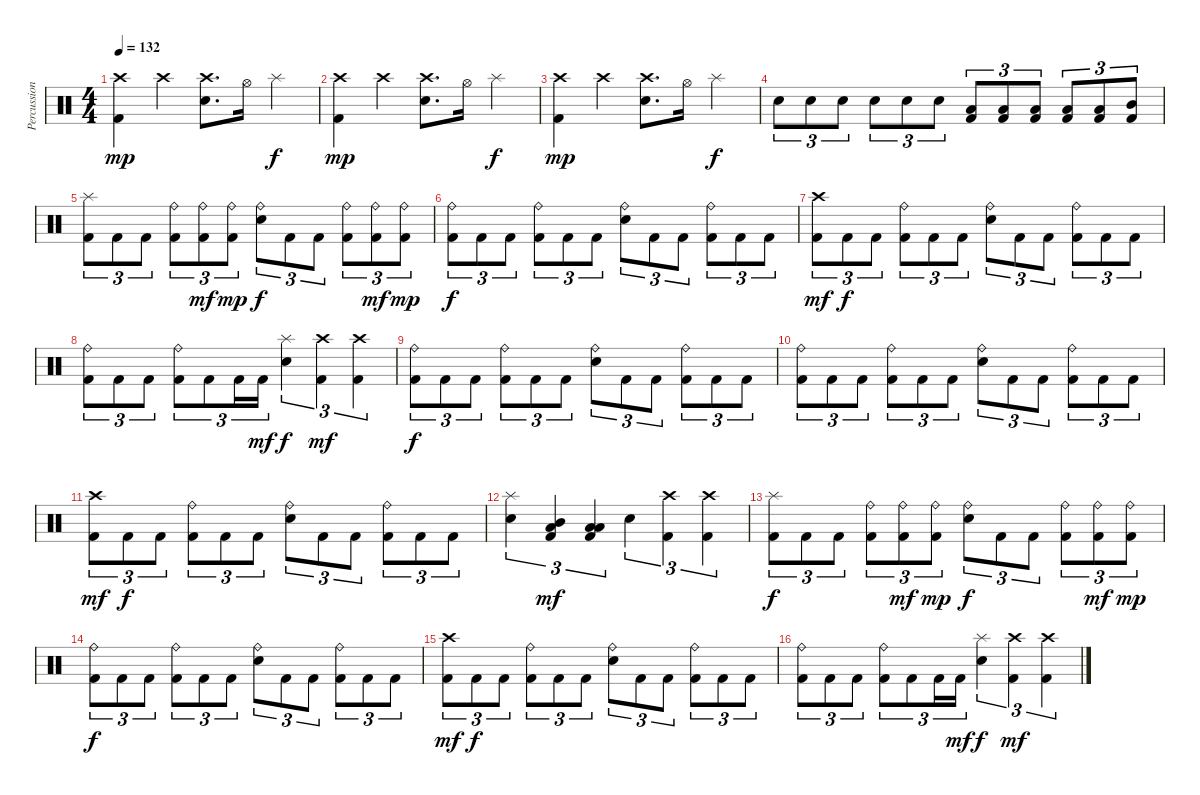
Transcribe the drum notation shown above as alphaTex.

\track ("Percussion" "Percussion") {instrument percussion}
\staff {score}
\articulation defaults
\ts (4 4)
\tempo 132
\clef neutral
\ks c
("Crash high (hit)" "Kick (hit) 2").4{dy mp} "Crash high (hit)".4 ("Crash high (hit)" "Snare (hit) 2").8{d} "Hi-Hat (open)".16 "Splash (hit)".4{dy f} |
("Crash high (hit)" "Kick (hit) 2").4{dy mp} "Crash high (hit)".4 ("Crash high (hit)" "Snare (hit) 2").8{d} "Hi-Hat (open)".16 "Splash (hit)".4{dy f} |
("Crash high (hit)" "Kick (hit) 2").4{dy mp} "Crash high (hit)".4 ("Crash high (hit)" "Snare (hit) 2").8{d} "Hi-Hat (open)".16 "Splash (hit)".4{dy f} |
"Snare (hit) 2".8{tu (3 2)} "Snare (hit) 2".8{tu (3 2)} "Snare (hit) 2".8{tu (3 2)} "Snare (hit) 2".8{tu (3 2)} "Snare (hit) 2".8{tu (3 2)} "Snare (hit) 2".8{tu (3 2)} ("Low Tom (hit)" "Kick (hit) 2").8{tu (3 2)} ("Low Tom (hit)" "Kick (hit) 2").8{tu (3 2)} ("Low Tom (hit)" "Kick (hit) 2").8{tu (3 2)} ("Low Tom (hit)" "Kick (hit) 2").8{tu (3 2)} ("Low Tom (hit)" "Kick (hit) 2").8{tu (3 2)} ("Mid Tom (hit)" "Kick (hit) 2").8{tu (3 2)} |
("Splash (hit)" "Kick (hit) 2").8{tu (3 2)} "Kick (hit) 2".8{tu (3 2)} "Kick (hit) 2".8{tu (3 2)} ("Ride (bell)" "Kick (hit) 2").8{tu (3 2)} ("Ride (bell)" "Kick (hit) 2").8{tu (3 2) dy mf} ("Ride (bell)" "Kick (hit) 2").8{tu (3 2) dy mp} ("Ride (bell)" "Snare (hit) 2").8{tu (3 2) dy f} "Kick (hit) 2".8{tu (3 2)} "Kick (hit) 2".8{tu (3 2)} ("Ride (bell)" "Kick (hit) 2").8{tu (3 2)} ("Ride (bell)" "Kick (hit) 2").8{tu (3 2) dy mf} ("Ride (bell)" "Kick (hit) 2").8{tu (3 2) dy mp} |
("Ride (bell)" "Kick (hit) 2").8{tu (3 2) dy f} "Kick (hit) 2".8{tu (3 2)} "Kick (hit) 2".8{tu (3 2)} ("Ride (bell)" "Kick (hit) 2").8{tu (3 2)} "Kick (hit) 2".8{tu (3 2)} "Kick (hit) 2".8{tu (3 2)} ("Ride (bell)" "Snare (hit) 2").8{tu (3 2)} "Kick (hit) 2".8{tu (3 2)} "Kick (hit) 2".8{tu (3 2)} ("Ride (bell)" "Kick (hit) 2").8{tu (3 2)} "Kick (hit) 2".8{tu (3 2)} "Kick (hit) 2".8{tu (3 2)} |
("Crash high (hit)" "Kick (hit) 2").8{tu (3 2) dy mf} "Kick (hit) 2".8{tu (3 2) dy f} "Kick (hit) 2".8{tu (3 2)} ("Ride (bell)" "Kick (hit) 2").8{tu (3 2)} "Kick (hit) 2".8{tu (3 2)} "Kick (hit) 2".8{tu (3 2)} ("Ride (bell)" "Snare (hit) 2").8{tu (3 2)} "Kick (hit) 2".8{tu (3 2)} "Kick (hit) 2".8{tu (3 2)} ("Ride (bell)" "Kick (hit) 2").8{tu (3 2)} "Kick (hit) 2".8{tu (3 2)} "Kick (hit) 2".8{tu (3 2)} |
("Ride (bell)" "Kick (hit) 2").8{tu (3 2)} "Kick (hit) 2".8{tu (3 2)} "Kick (hit) 2".8{tu (3 2)} ("Ride (bell)" "Kick (hit) 2").8{tu (3 2)} "Kick (hit) 2".8{tu (3 2)} "Kick (hit) 2".16{tu (3 2)} "Kick (hit) 2".16{tu (3 2) dy mf} ("Splash (hit)" "Snare (hit) 2").4{tu (3 2) dy f} ("Crash high (hit)" "Kick (hit) 2").4{tu (3 2) dy mf} ("Crash high (hit)" "Kick (hit) 2").4{tu (3 2)} |
("Ride (bell)" "Kick (hit) 2").8{tu (3 2) dy f} "Kick (hit) 2".8{tu (3 2)} "Kick (hit) 2".8{tu (3 2)} ("Ride (bell)" "Kick (hit) 2").8{tu (3 2)} "Kick (hit) 2".8{tu (3 2)} "Kick (hit) 2".8{tu (3 2)} ("Ride (bell)" "Snare (hit) 2").8{tu (3 2)} "Kick (hit) 2".8{tu (3 2)} "Kick (hit) 2".8{tu (3 2)} ("Ride (bell)" "Kick (hit) 2").8{tu (3 2)} "Kick (hit) 2".8{tu (3 2)} "Kick (hit) 2".8{tu (3 2)} |
("Ride (bell)" "Kick (hit) 2").8{tu (3 2)} "Kick (hit) 2".8{tu (3 2)} "Kick (hit) 2".8{tu (3 2)} ("Ride (bell)" "Kick (hit) 2").8{tu (3 2)} "Kick (hit) 2".8{tu (3 2)} "Kick (hit) 2".8{tu (3 2)} ("Ride (bell)" "Snare (hit) 2").8{tu (3 2)} "Kick (hit) 2".8{tu (3 2)} "Kick (hit) 2".8{tu (3 2)} ("Ride (bell)" "Kick (hit) 2").8{tu (3 2)} "Kick (hit) 2".8{tu (3 2)} "Kick (hit) 2".8{tu (3 2)} |
("Crash high (hit)" "Kick (hit) 2").8{tu (3 2) dy mf} "Kick (hit) 2".8{tu (3 2) dy f} "Kick (hit) 2".8{tu (3 2)} ("Ride (bell)" "Kick (hit) 2").8{tu (3 2)} "Kick (hit) 2".8{tu (3 2)} "Kick (hit) 2".8{tu (3 2)} ("Ride (bell)" "Snare (hit) 2").8{tu (3 2)} "Kick (hit) 2".8{tu (3 2)} "Kick (hit) 2".8{tu (3 2)} ("Ride (bell)" "Kick (hit) 2").8{tu (3 2)} "Kick (hit) 2".8{tu (3 2)} "Kick (hit) 2".8{tu (3 2)} |
("Splash (hit)" "Snare (hit) 2").4{tu (3 2)} ("Mid Tom (hit)" "Low Tom (hit)" "Kick (hit) 2").4{tu (3 2) dy mf} ("Low Tom (hit)" "Low Floor Tom (hit)" "Kick (hit) 2").4{tu (3 2)} "Snare (hit) 2".4{tu (3 2)} ("Crash high (hit)" "Kick (hit) 2").4{tu (3 2)} ("Crash high (hit)" "Kick (hit) 2").4{tu (3 2)} |
("Splash (hit)" "Kick (hit) 2").8{tu (3 2) dy f} "Kick (hit) 2".8{tu (3 2)} "Kick (hit) 2".8{tu (3 2)} ("Ride (bell)" "Kick (hit) 2").8{tu (3 2)} ("Ride (bell)" "Kick (hit) 2").8{tu (3 2) dy mf} ("Ride (bell)" "Kick (hit) 2").8{tu (3 2) dy mp} ("Ride (bell)" "Snare (hit) 2").8{tu (3 2) dy f} "Kick (hit) 2".8{tu (3 2)} "Kick (hit) 2".8{tu (3 2)} ("Ride (bell)" "Kick (hit) 2").8{tu (3 2)} ("Ride (bell)" "Kick (hit) 2").8{tu (3 2) dy mf} ("Ride (bell)" "Kick (hit) 2").8{tu (3 2) dy mp} |
("Ride (bell)" "Kick (hit) 2").8{tu (3 2) dy f} "Kick (hit) 2".8{tu (3 2)} "Kick (hit) 2".8{tu (3 2)} ("Ride (bell)" "Kick (hit) 2").8{tu (3 2)} "Kick (hit) 2".8{tu (3 2)} "Kick (hit) 2".8{tu (3 2)} ("Ride (bell)" "Snare (hit) 2").8{tu (3 2)} "Kick (hit) 2".8{tu (3 2)} "Kick (hit) 2".8{tu (3 2)} ("Ride (bell)" "Kick (hit) 2").8{tu (3 2)} "Kick (hit) 2".8{tu (3 2)} "Kick (hit) 2".8{tu (3 2)} |
("Crash high (hit)" "Kick (hit) 2").8{tu (3 2) dy mf} "Kick (hit) 2".8{tu (3 2) dy f} "Kick (hit) 2".8{tu (3 2)} ("Ride (bell)" "Kick (hit) 2").8{tu (3 2)} "Kick (hit) 2".8{tu (3 2)} "Kick (hit) 2".8{tu (3 2)} ("Ride (bell)" "Snare (hit) 2").8{tu (3 2)} "Kick (hit) 2".8{tu (3 2)} "Kick (hit) 2".8{tu (3 2)} ("Ride (bell)" "Kick (hit) 2").8{tu (3 2)} "Kick (hit) 2".8{tu (3 2)} "Kick (hit) 2".8{tu (3 2)} |
("Ride (bell)" "Kick (hit) 2").8{tu (3 2)} "Kick (hit) 2".8{tu (3 2)} "Kick (hit) 2".8{tu (3 2)} ("Ride (bell)" "Kick (hit) 2").8{tu (3 2)} "Kick (hit) 2".8{tu (3 2)} "Kick (hit) 2".16{tu (3 2)} "Kick (hit) 2".16{tu (3 2) dy mf} ("Splash (hit)" "Snare (hit) 2").4{tu (3 2) dy f} ("Crash high (hit)" "Kick (hit) 2").4{tu (3 2) dy mf} ("Crash high (hit)" "Kick (hit) 2").4{tu (3 2)}
